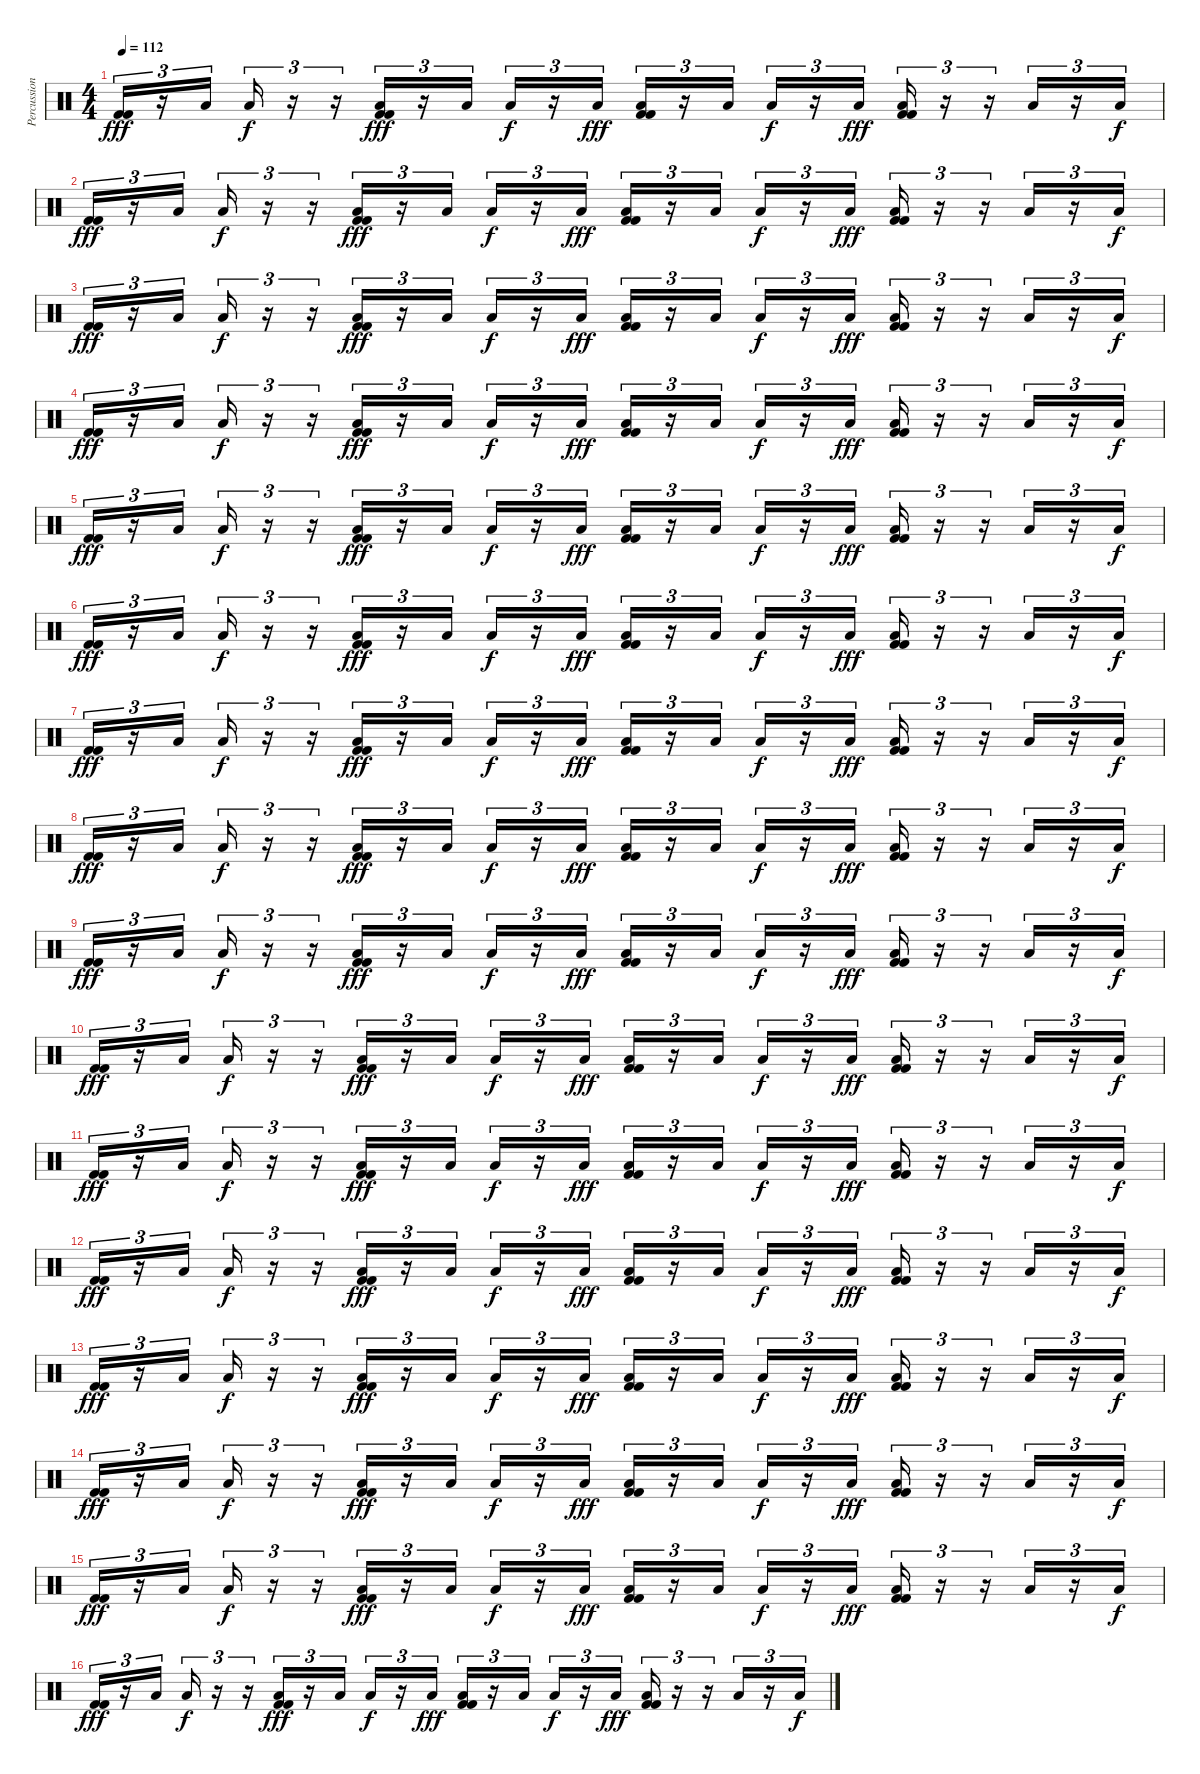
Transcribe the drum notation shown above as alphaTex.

\track ("Percussion" "Percussion") {instrument percussion}
\staff {score}
\articulation defaults
\ts (4 4)
\tempo 112
\clef neutral
\ks c
("Kick (hit) 2" "Kick (hit) 2").16{tu (3 2) dy fff} r.16{tu (3 2)} "Low Floor Tom (hit)".16{tu (3 2)} "Low Floor Tom (hit)".16{tu (3 2) dy f} r.16{tu (3 2)} r.16{tu (3 2)} ("Kick (hit) 2" "Kick (hit) 2" "Low Floor Tom (hit)").16{tu (3 2) dy fff} r.16{tu (3 2)} "Low Floor Tom (hit)".16{tu (3 2)} "Low Floor Tom (hit)".16{tu (3 2) dy f} r.16{tu (3 2)} "Low Floor Tom (hit)".16{tu (3 2) dy fff} ("Kick (hit) 2" "Kick (hit) 2" "Low Floor Tom (hit)").16{tu (3 2)} r.16{tu (3 2)} "Low Floor Tom (hit)".16{tu (3 2)} "Low Floor Tom (hit)".16{tu (3 2) dy f} r.16{tu (3 2)} "Low Floor Tom (hit)".16{tu (3 2) dy fff} ("Kick (hit) 2" "Kick (hit) 2" "Low Floor Tom (hit)").16{tu (3 2)} r.16{tu (3 2)} r.16{tu (3 2)} "Low Floor Tom (hit)".16{tu (3 2)} r.16{tu (3 2)} "Low Floor Tom (hit)".16{tu (3 2) dy f} |
("Kick (hit) 2" "Kick (hit) 2").16{tu (3 2) dy fff} r.16{tu (3 2)} "Low Floor Tom (hit)".16{tu (3 2)} "Low Floor Tom (hit)".16{tu (3 2) dy f} r.16{tu (3 2)} r.16{tu (3 2)} ("Kick (hit) 2" "Kick (hit) 2" "Low Floor Tom (hit)").16{tu (3 2) dy fff} r.16{tu (3 2)} "Low Floor Tom (hit)".16{tu (3 2)} "Low Floor Tom (hit)".16{tu (3 2) dy f} r.16{tu (3 2)} "Low Floor Tom (hit)".16{tu (3 2) dy fff} ("Kick (hit) 2" "Kick (hit) 2" "Low Floor Tom (hit)").16{tu (3 2)} r.16{tu (3 2)} "Low Floor Tom (hit)".16{tu (3 2)} "Low Floor Tom (hit)".16{tu (3 2) dy f} r.16{tu (3 2)} "Low Floor Tom (hit)".16{tu (3 2) dy fff} ("Kick (hit) 2" "Kick (hit) 2" "Low Floor Tom (hit)").16{tu (3 2)} r.16{tu (3 2)} r.16{tu (3 2)} "Low Floor Tom (hit)".16{tu (3 2)} r.16{tu (3 2)} "Low Floor Tom (hit)".16{tu (3 2) dy f} |
("Kick (hit) 2" "Kick (hit) 2").16{tu (3 2) dy fff} r.16{tu (3 2)} "Low Floor Tom (hit)".16{tu (3 2)} "Low Floor Tom (hit)".16{tu (3 2) dy f} r.16{tu (3 2)} r.16{tu (3 2)} ("Kick (hit) 2" "Kick (hit) 2" "Low Floor Tom (hit)").16{tu (3 2) dy fff} r.16{tu (3 2)} "Low Floor Tom (hit)".16{tu (3 2)} "Low Floor Tom (hit)".16{tu (3 2) dy f} r.16{tu (3 2)} "Low Floor Tom (hit)".16{tu (3 2) dy fff} ("Kick (hit) 2" "Kick (hit) 2" "Low Floor Tom (hit)").16{tu (3 2)} r.16{tu (3 2)} "Low Floor Tom (hit)".16{tu (3 2)} "Low Floor Tom (hit)".16{tu (3 2) dy f} r.16{tu (3 2)} "Low Floor Tom (hit)".16{tu (3 2) dy fff} ("Kick (hit) 2" "Kick (hit) 2" "Low Floor Tom (hit)").16{tu (3 2)} r.16{tu (3 2)} r.16{tu (3 2)} "Low Floor Tom (hit)".16{tu (3 2)} r.16{tu (3 2)} "Low Floor Tom (hit)".16{tu (3 2) dy f} |
("Kick (hit) 2" "Kick (hit) 2").16{tu (3 2) dy fff} r.16{tu (3 2)} "Low Floor Tom (hit)".16{tu (3 2)} "Low Floor Tom (hit)".16{tu (3 2) dy f} r.16{tu (3 2)} r.16{tu (3 2)} ("Kick (hit) 2" "Kick (hit) 2" "Low Floor Tom (hit)").16{tu (3 2) dy fff} r.16{tu (3 2)} "Low Floor Tom (hit)".16{tu (3 2)} "Low Floor Tom (hit)".16{tu (3 2) dy f} r.16{tu (3 2)} "Low Floor Tom (hit)".16{tu (3 2) dy fff} ("Kick (hit) 2" "Kick (hit) 2" "Low Floor Tom (hit)").16{tu (3 2)} r.16{tu (3 2)} "Low Floor Tom (hit)".16{tu (3 2)} "Low Floor Tom (hit)".16{tu (3 2) dy f} r.16{tu (3 2)} "Low Floor Tom (hit)".16{tu (3 2) dy fff} ("Kick (hit) 2" "Kick (hit) 2" "Low Floor Tom (hit)").16{tu (3 2)} r.16{tu (3 2)} r.16{tu (3 2)} "Low Floor Tom (hit)".16{tu (3 2)} r.16{tu (3 2)} "Low Floor Tom (hit)".16{tu (3 2) dy f} |
("Kick (hit) 2" "Kick (hit) 2").16{tu (3 2) dy fff} r.16{tu (3 2)} "Low Floor Tom (hit)".16{tu (3 2)} "Low Floor Tom (hit)".16{tu (3 2) dy f} r.16{tu (3 2)} r.16{tu (3 2)} ("Kick (hit) 2" "Kick (hit) 2" "Low Floor Tom (hit)").16{tu (3 2) dy fff} r.16{tu (3 2)} "Low Floor Tom (hit)".16{tu (3 2)} "Low Floor Tom (hit)".16{tu (3 2) dy f} r.16{tu (3 2)} "Low Floor Tom (hit)".16{tu (3 2) dy fff} ("Kick (hit) 2" "Kick (hit) 2" "Low Floor Tom (hit)").16{tu (3 2)} r.16{tu (3 2)} "Low Floor Tom (hit)".16{tu (3 2)} "Low Floor Tom (hit)".16{tu (3 2) dy f} r.16{tu (3 2)} "Low Floor Tom (hit)".16{tu (3 2) dy fff} ("Kick (hit) 2" "Kick (hit) 2" "Low Floor Tom (hit)").16{tu (3 2)} r.16{tu (3 2)} r.16{tu (3 2)} "Low Floor Tom (hit)".16{tu (3 2)} r.16{tu (3 2)} "Low Floor Tom (hit)".16{tu (3 2) dy f} |
("Kick (hit) 2" "Kick (hit) 2").16{tu (3 2) dy fff} r.16{tu (3 2)} "Low Floor Tom (hit)".16{tu (3 2)} "Low Floor Tom (hit)".16{tu (3 2) dy f} r.16{tu (3 2)} r.16{tu (3 2)} ("Kick (hit) 2" "Kick (hit) 2" "Low Floor Tom (hit)").16{tu (3 2) dy fff} r.16{tu (3 2)} "Low Floor Tom (hit)".16{tu (3 2)} "Low Floor Tom (hit)".16{tu (3 2) dy f} r.16{tu (3 2)} "Low Floor Tom (hit)".16{tu (3 2) dy fff} ("Kick (hit) 2" "Kick (hit) 2" "Low Floor Tom (hit)").16{tu (3 2)} r.16{tu (3 2)} "Low Floor Tom (hit)".16{tu (3 2)} "Low Floor Tom (hit)".16{tu (3 2) dy f} r.16{tu (3 2)} "Low Floor Tom (hit)".16{tu (3 2) dy fff} ("Kick (hit) 2" "Kick (hit) 2" "Low Floor Tom (hit)").16{tu (3 2)} r.16{tu (3 2)} r.16{tu (3 2)} "Low Floor Tom (hit)".16{tu (3 2)} r.16{tu (3 2)} "Low Floor Tom (hit)".16{tu (3 2) dy f} |
("Kick (hit) 2" "Kick (hit) 2").16{tu (3 2) dy fff} r.16{tu (3 2)} "Low Floor Tom (hit)".16{tu (3 2)} "Low Floor Tom (hit)".16{tu (3 2) dy f} r.16{tu (3 2)} r.16{tu (3 2)} ("Kick (hit) 2" "Kick (hit) 2" "Low Floor Tom (hit)").16{tu (3 2) dy fff} r.16{tu (3 2)} "Low Floor Tom (hit)".16{tu (3 2)} "Low Floor Tom (hit)".16{tu (3 2) dy f} r.16{tu (3 2)} "Low Floor Tom (hit)".16{tu (3 2) dy fff} ("Kick (hit) 2" "Kick (hit) 2" "Low Floor Tom (hit)").16{tu (3 2)} r.16{tu (3 2)} "Low Floor Tom (hit)".16{tu (3 2)} "Low Floor Tom (hit)".16{tu (3 2) dy f} r.16{tu (3 2)} "Low Floor Tom (hit)".16{tu (3 2) dy fff} ("Kick (hit) 2" "Kick (hit) 2" "Low Floor Tom (hit)").16{tu (3 2)} r.16{tu (3 2)} r.16{tu (3 2)} "Low Floor Tom (hit)".16{tu (3 2)} r.16{tu (3 2)} "Low Floor Tom (hit)".16{tu (3 2) dy f} |
("Kick (hit) 2" "Kick (hit) 2").16{tu (3 2) dy fff} r.16{tu (3 2)} "Low Floor Tom (hit)".16{tu (3 2)} "Low Floor Tom (hit)".16{tu (3 2) dy f} r.16{tu (3 2)} r.16{tu (3 2)} ("Kick (hit) 2" "Kick (hit) 2" "Low Floor Tom (hit)").16{tu (3 2) dy fff} r.16{tu (3 2)} "Low Floor Tom (hit)".16{tu (3 2)} "Low Floor Tom (hit)".16{tu (3 2) dy f} r.16{tu (3 2)} "Low Floor Tom (hit)".16{tu (3 2) dy fff} ("Kick (hit) 2" "Kick (hit) 2" "Low Floor Tom (hit)").16{tu (3 2)} r.16{tu (3 2)} "Low Floor Tom (hit)".16{tu (3 2)} "Low Floor Tom (hit)".16{tu (3 2) dy f} r.16{tu (3 2)} "Low Floor Tom (hit)".16{tu (3 2) dy fff} ("Kick (hit) 2" "Kick (hit) 2" "Low Floor Tom (hit)").16{tu (3 2)} r.16{tu (3 2)} r.16{tu (3 2)} "Low Floor Tom (hit)".16{tu (3 2)} r.16{tu (3 2)} "Low Floor Tom (hit)".16{tu (3 2) dy f} |
("Kick (hit) 2" "Kick (hit) 2").16{tu (3 2) dy fff} r.16{tu (3 2)} "Low Floor Tom (hit)".16{tu (3 2)} "Low Floor Tom (hit)".16{tu (3 2) dy f} r.16{tu (3 2)} r.16{tu (3 2)} ("Kick (hit) 2" "Kick (hit) 2" "Low Floor Tom (hit)").16{tu (3 2) dy fff} r.16{tu (3 2)} "Low Floor Tom (hit)".16{tu (3 2)} "Low Floor Tom (hit)".16{tu (3 2) dy f} r.16{tu (3 2)} "Low Floor Tom (hit)".16{tu (3 2) dy fff} ("Kick (hit) 2" "Kick (hit) 2" "Low Floor Tom (hit)").16{tu (3 2)} r.16{tu (3 2)} "Low Floor Tom (hit)".16{tu (3 2)} "Low Floor Tom (hit)".16{tu (3 2) dy f} r.16{tu (3 2)} "Low Floor Tom (hit)".16{tu (3 2) dy fff} ("Kick (hit) 2" "Kick (hit) 2" "Low Floor Tom (hit)").16{tu (3 2)} r.16{tu (3 2)} r.16{tu (3 2)} "Low Floor Tom (hit)".16{tu (3 2)} r.16{tu (3 2)} "Low Floor Tom (hit)".16{tu (3 2) dy f} |
("Kick (hit) 2" "Kick (hit) 2").16{tu (3 2) dy fff} r.16{tu (3 2)} "Low Floor Tom (hit)".16{tu (3 2)} "Low Floor Tom (hit)".16{tu (3 2) dy f} r.16{tu (3 2)} r.16{tu (3 2)} ("Kick (hit) 2" "Kick (hit) 2" "Low Floor Tom (hit)").16{tu (3 2) dy fff} r.16{tu (3 2)} "Low Floor Tom (hit)".16{tu (3 2)} "Low Floor Tom (hit)".16{tu (3 2) dy f} r.16{tu (3 2)} "Low Floor Tom (hit)".16{tu (3 2) dy fff} ("Kick (hit) 2" "Kick (hit) 2" "Low Floor Tom (hit)").16{tu (3 2)} r.16{tu (3 2)} "Low Floor Tom (hit)".16{tu (3 2)} "Low Floor Tom (hit)".16{tu (3 2) dy f} r.16{tu (3 2)} "Low Floor Tom (hit)".16{tu (3 2) dy fff} ("Kick (hit) 2" "Kick (hit) 2" "Low Floor Tom (hit)").16{tu (3 2)} r.16{tu (3 2)} r.16{tu (3 2)} "Low Floor Tom (hit)".16{tu (3 2)} r.16{tu (3 2)} "Low Floor Tom (hit)".16{tu (3 2) dy f} |
("Kick (hit) 2" "Kick (hit) 2").16{tu (3 2) dy fff} r.16{tu (3 2)} "Low Floor Tom (hit)".16{tu (3 2)} "Low Floor Tom (hit)".16{tu (3 2) dy f} r.16{tu (3 2)} r.16{tu (3 2)} ("Kick (hit) 2" "Kick (hit) 2" "Low Floor Tom (hit)").16{tu (3 2) dy fff} r.16{tu (3 2)} "Low Floor Tom (hit)".16{tu (3 2)} "Low Floor Tom (hit)".16{tu (3 2) dy f} r.16{tu (3 2)} "Low Floor Tom (hit)".16{tu (3 2) dy fff} ("Kick (hit) 2" "Kick (hit) 2" "Low Floor Tom (hit)").16{tu (3 2)} r.16{tu (3 2)} "Low Floor Tom (hit)".16{tu (3 2)} "Low Floor Tom (hit)".16{tu (3 2) dy f} r.16{tu (3 2)} "Low Floor Tom (hit)".16{tu (3 2) dy fff} ("Kick (hit) 2" "Kick (hit) 2" "Low Floor Tom (hit)").16{tu (3 2)} r.16{tu (3 2)} r.16{tu (3 2)} "Low Floor Tom (hit)".16{tu (3 2)} r.16{tu (3 2)} "Low Floor Tom (hit)".16{tu (3 2) dy f} |
("Kick (hit) 2" "Kick (hit) 2").16{tu (3 2) dy fff} r.16{tu (3 2)} "Low Floor Tom (hit)".16{tu (3 2)} "Low Floor Tom (hit)".16{tu (3 2) dy f} r.16{tu (3 2)} r.16{tu (3 2)} ("Kick (hit) 2" "Kick (hit) 2" "Low Floor Tom (hit)").16{tu (3 2) dy fff} r.16{tu (3 2)} "Low Floor Tom (hit)".16{tu (3 2)} "Low Floor Tom (hit)".16{tu (3 2) dy f} r.16{tu (3 2)} "Low Floor Tom (hit)".16{tu (3 2) dy fff} ("Kick (hit) 2" "Kick (hit) 2" "Low Floor Tom (hit)").16{tu (3 2)} r.16{tu (3 2)} "Low Floor Tom (hit)".16{tu (3 2)} "Low Floor Tom (hit)".16{tu (3 2) dy f} r.16{tu (3 2)} "Low Floor Tom (hit)".16{tu (3 2) dy fff} ("Kick (hit) 2" "Kick (hit) 2" "Low Floor Tom (hit)").16{tu (3 2)} r.16{tu (3 2)} r.16{tu (3 2)} "Low Floor Tom (hit)".16{tu (3 2)} r.16{tu (3 2)} "Low Floor Tom (hit)".16{tu (3 2) dy f} |
("Kick (hit) 2" "Kick (hit) 2").16{tu (3 2) dy fff} r.16{tu (3 2)} "Low Floor Tom (hit)".16{tu (3 2)} "Low Floor Tom (hit)".16{tu (3 2) dy f} r.16{tu (3 2)} r.16{tu (3 2)} ("Kick (hit) 2" "Kick (hit) 2" "Low Floor Tom (hit)").16{tu (3 2) dy fff} r.16{tu (3 2)} "Low Floor Tom (hit)".16{tu (3 2)} "Low Floor Tom (hit)".16{tu (3 2) dy f} r.16{tu (3 2)} "Low Floor Tom (hit)".16{tu (3 2) dy fff} ("Kick (hit) 2" "Kick (hit) 2" "Low Floor Tom (hit)").16{tu (3 2)} r.16{tu (3 2)} "Low Floor Tom (hit)".16{tu (3 2)} "Low Floor Tom (hit)".16{tu (3 2) dy f} r.16{tu (3 2)} "Low Floor Tom (hit)".16{tu (3 2) dy fff} ("Kick (hit) 2" "Kick (hit) 2" "Low Floor Tom (hit)").16{tu (3 2)} r.16{tu (3 2)} r.16{tu (3 2)} "Low Floor Tom (hit)".16{tu (3 2)} r.16{tu (3 2)} "Low Floor Tom (hit)".16{tu (3 2) dy f} |
("Kick (hit) 2" "Kick (hit) 2").16{tu (3 2) dy fff} r.16{tu (3 2)} "Low Floor Tom (hit)".16{tu (3 2)} "Low Floor Tom (hit)".16{tu (3 2) dy f} r.16{tu (3 2)} r.16{tu (3 2)} ("Kick (hit) 2" "Kick (hit) 2" "Low Floor Tom (hit)").16{tu (3 2) dy fff} r.16{tu (3 2)} "Low Floor Tom (hit)".16{tu (3 2)} "Low Floor Tom (hit)".16{tu (3 2) dy f} r.16{tu (3 2)} "Low Floor Tom (hit)".16{tu (3 2) dy fff} ("Kick (hit) 2" "Kick (hit) 2" "Low Floor Tom (hit)").16{tu (3 2)} r.16{tu (3 2)} "Low Floor Tom (hit)".16{tu (3 2)} "Low Floor Tom (hit)".16{tu (3 2) dy f} r.16{tu (3 2)} "Low Floor Tom (hit)".16{tu (3 2) dy fff} ("Kick (hit) 2" "Kick (hit) 2" "Low Floor Tom (hit)").16{tu (3 2)} r.16{tu (3 2)} r.16{tu (3 2)} "Low Floor Tom (hit)".16{tu (3 2)} r.16{tu (3 2)} "Low Floor Tom (hit)".16{tu (3 2) dy f} |
("Kick (hit) 2" "Kick (hit) 2").16{tu (3 2) dy fff} r.16{tu (3 2)} "Low Floor Tom (hit)".16{tu (3 2)} "Low Floor Tom (hit)".16{tu (3 2) dy f} r.16{tu (3 2)} r.16{tu (3 2)} ("Kick (hit) 2" "Kick (hit) 2" "Low Floor Tom (hit)").16{tu (3 2) dy fff} r.16{tu (3 2)} "Low Floor Tom (hit)".16{tu (3 2)} "Low Floor Tom (hit)".16{tu (3 2) dy f} r.16{tu (3 2)} "Low Floor Tom (hit)".16{tu (3 2) dy fff} ("Kick (hit) 2" "Kick (hit) 2" "Low Floor Tom (hit)").16{tu (3 2)} r.16{tu (3 2)} "Low Floor Tom (hit)".16{tu (3 2)} "Low Floor Tom (hit)".16{tu (3 2) dy f} r.16{tu (3 2)} "Low Floor Tom (hit)".16{tu (3 2) dy fff} ("Kick (hit) 2" "Kick (hit) 2" "Low Floor Tom (hit)").16{tu (3 2)} r.16{tu (3 2)} r.16{tu (3 2)} "Low Floor Tom (hit)".16{tu (3 2)} r.16{tu (3 2)} "Low Floor Tom (hit)".16{tu (3 2) dy f} |
("Kick (hit) 2" "Kick (hit) 2").16{tu (3 2) dy fff} r.16{tu (3 2)} "Low Floor Tom (hit)".16{tu (3 2)} "Low Floor Tom (hit)".16{tu (3 2) dy f} r.16{tu (3 2)} r.16{tu (3 2)} ("Kick (hit) 2" "Kick (hit) 2" "Low Floor Tom (hit)").16{tu (3 2) dy fff} r.16{tu (3 2)} "Low Floor Tom (hit)".16{tu (3 2)} "Low Floor Tom (hit)".16{tu (3 2) dy f} r.16{tu (3 2)} "Low Floor Tom (hit)".16{tu (3 2) dy fff} ("Kick (hit) 2" "Kick (hit) 2" "Low Floor Tom (hit)").16{tu (3 2)} r.16{tu (3 2)} "Low Floor Tom (hit)".16{tu (3 2)} "Low Floor Tom (hit)".16{tu (3 2) dy f} r.16{tu (3 2)} "Low Floor Tom (hit)".16{tu (3 2) dy fff} ("Kick (hit) 2" "Kick (hit) 2" "Low Floor Tom (hit)").16{tu (3 2)} r.16{tu (3 2)} r.16{tu (3 2)} "Low Floor Tom (hit)".16{tu (3 2)} r.16{tu (3 2)} "Low Floor Tom (hit)".16{tu (3 2) dy f}
